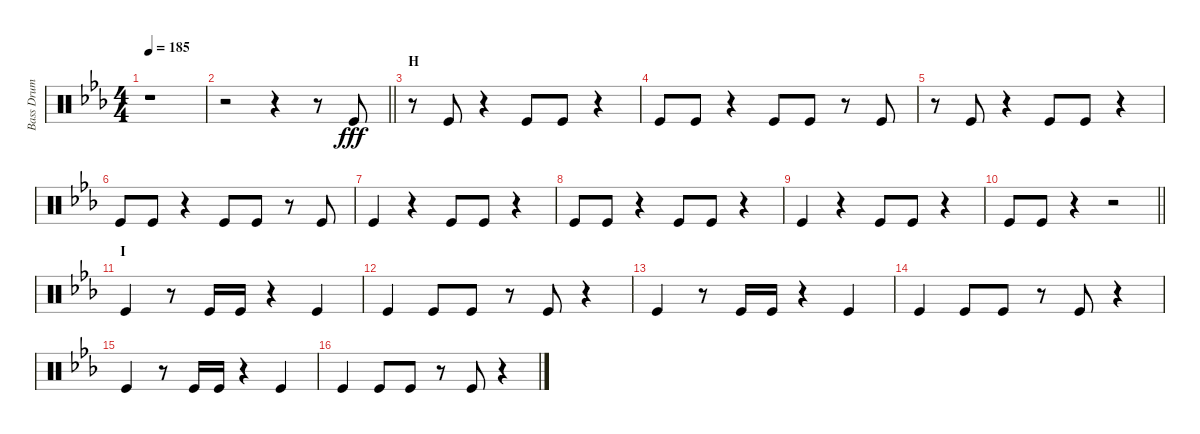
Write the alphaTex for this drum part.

\track ("Bass Drum" "Bass Drum") {instrument percussion}
\staff {score}
\articulation defaults
\ts (4 4)
\tempo 185
\clef neutral
\ks eb
r.1{dy fff} |
\barLineRight lightlight
r.2 r.4 r.8 "Kick (hit)".8 |
\section ("" "H")
r.8 "Kick (hit)".8 r.4 "Kick (hit)".8 "Kick (hit)".8 r.4 |
"Kick (hit)".8 "Kick (hit)".8 r.4 "Kick (hit)".8 "Kick (hit)".8 r.8 "Kick (hit)".8 |
r.8 "Kick (hit)".8 r.4 "Kick (hit)".8 "Kick (hit)".8 r.4 |
"Kick (hit)".8 "Kick (hit)".8 r.4 "Kick (hit)".8 "Kick (hit)".8 r.8 "Kick (hit)".8 |
"Kick (hit)".4 r.4 "Kick (hit)".8 "Kick (hit)".8 r.4 |
"Kick (hit)".8 "Kick (hit)".8 r.4 "Kick (hit)".8 "Kick (hit)".8 r.4 |
"Kick (hit)".4 r.4 "Kick (hit)".8 "Kick (hit)".8 r.4 |
\barLineRight lightlight "Kick (hit)".8 "Kick (hit)".8
r.4 r.2 |
\section ("" "I")
"Kick (hit)".4 r.8 "Kick (hit)".16 "Kick (hit)".16 r.4 "Kick (hit)".4 |
"Kick (hit)".4 "Kick (hit)".8 "Kick (hit)".8 r.8 "Kick (hit)".8 r.4 |
"Kick (hit)".4 r.8 "Kick (hit)".16 "Kick (hit)".16 r.4 "Kick (hit)".4 |
"Kick (hit)".4 "Kick (hit)".8 "Kick (hit)".8 r.8 "Kick (hit)".8 r.4 |
"Kick (hit)".4 r.8 "Kick (hit)".16 "Kick (hit)".16 r.4 "Kick (hit)".4 |
"Kick (hit)".4 "Kick (hit)".8 "Kick (hit)".8 r.8 "Kick (hit)".8 r.4
